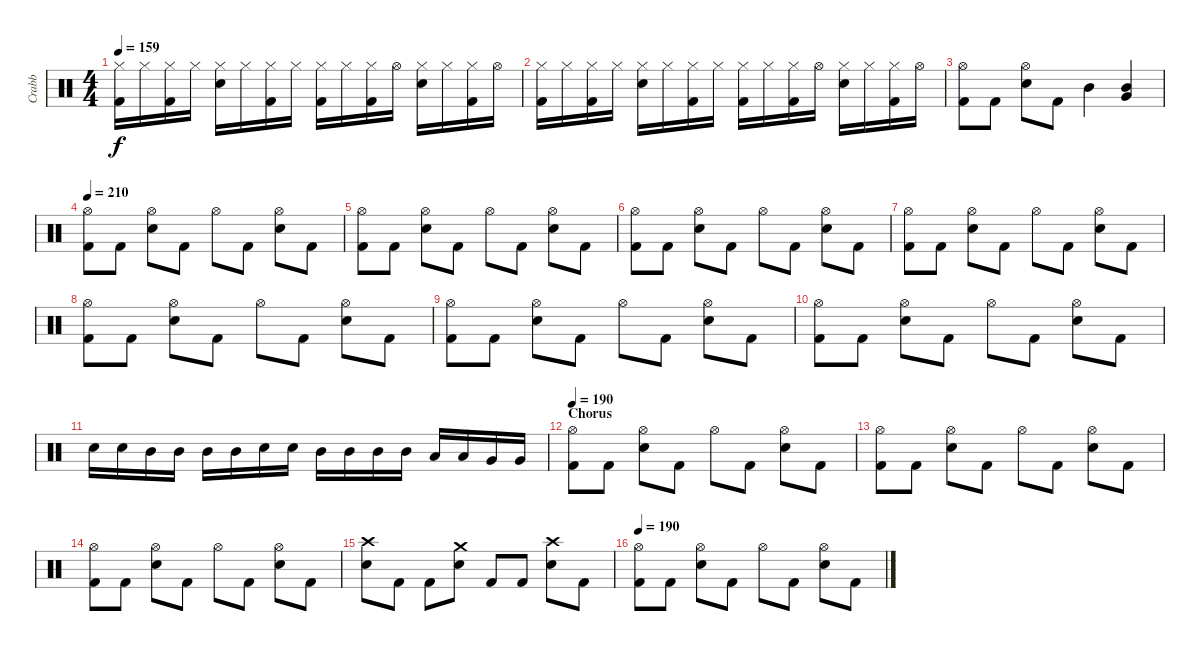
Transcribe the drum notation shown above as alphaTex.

\track ("Crabb" "Crabb") {instrument percussion}
\staff {score}
\articulation defaults
\ts (4 4)
\tempo 159
\clef neutral
\ks c
("Hi-Hat (closed)" "Kick (hit) 2").16{dy f} "Hi-Hat (closed)".16 ("Hi-Hat (closed)" "Kick (hit) 2").16 "Hi-Hat (closed)".16 ("Hi-Hat (closed)" "Electric Snare (hit)").16 "Hi-Hat (closed)".16 ("Hi-Hat (closed)" "Kick (hit) 2").16 "Hi-Hat (closed)".16 ("Hi-Hat (closed)" "Kick (hit) 2").16 "Hi-Hat (closed)".16 ("Hi-Hat (closed)" "Kick (hit) 2").16 "Hi-Hat (open)".16 ("Hi-Hat (closed)" "Electric Snare (hit)").16 "Hi-Hat (closed)".16 ("Hi-Hat (closed)" "Kick (hit) 2").16 "Hi-Hat (open)".16 |
("Hi-Hat (closed)" "Kick (hit) 2").16 "Hi-Hat (closed)".16 ("Hi-Hat (closed)" "Kick (hit) 2").16 "Hi-Hat (closed)".16 ("Hi-Hat (closed)" "Electric Snare (hit)").16 "Hi-Hat (closed)".16 ("Hi-Hat (closed)" "Kick (hit) 2").16 "Hi-Hat (closed)".16 ("Hi-Hat (closed)" "Kick (hit) 2").16 "Hi-Hat (closed)".16 ("Hi-Hat (closed)" "Kick (hit) 2").16 "Hi-Hat (open)".16 ("Hi-Hat (closed)" "Electric Snare (hit)").16 "Hi-Hat (closed)".16 ("Hi-Hat (closed)" "Kick (hit) 2").16 "Hi-Hat (open)".16 |
("Hi-Hat (open)" "Kick (hit) 2").8 "Kick (hit) 2".8 ("Hi-Hat (open)" "Electric Snare (hit)").8 "Kick (hit) 2".8 "Mid Tom (hit)".4 ("Mid Tom (hit)" "Very Low Tom (hit)").4 |
\tempo 210
("Hi-Hat (open)" "Kick (hit) 2").8 "Kick (hit) 2".8 ("Hi-Hat (open)" "Electric Snare (hit)").8 "Kick (hit) 2".8 "Hi-Hat (open)".8 "Kick (hit) 2".8 ("Hi-Hat (open)" "Electric Snare (hit)").8 "Kick (hit) 2".8 |
("Hi-Hat (open)" "Kick (hit) 2").8 "Kick (hit) 2".8 ("Hi-Hat (open)" "Electric Snare (hit)").8 "Kick (hit) 2".8 "Hi-Hat (open)".8 "Kick (hit) 2".8 ("Hi-Hat (open)" "Electric Snare (hit)").8 "Kick (hit) 2".8 |
("Hi-Hat (open)" "Kick (hit) 2").8 "Kick (hit) 2".8 ("Hi-Hat (open)" "Electric Snare (hit)").8 "Kick (hit) 2".8 "Hi-Hat (open)".8 "Kick (hit) 2".8 ("Hi-Hat (open)" "Electric Snare (hit)").8 "Kick (hit) 2".8 |
("Hi-Hat (open)" "Kick (hit) 2").8 "Kick (hit) 2".8 ("Hi-Hat (open)" "Electric Snare (hit)").8 "Kick (hit) 2".8 "Hi-Hat (open)".8 "Kick (hit) 2".8 ("Hi-Hat (open)" "Electric Snare (hit)").8 "Kick (hit) 2".8 |
("Hi-Hat (open)" "Kick (hit) 2").8 "Kick (hit) 2".8 ("Hi-Hat (open)" "Electric Snare (hit)").8 "Kick (hit) 2".8 "Hi-Hat (open)".8 "Kick (hit) 2".8 ("Hi-Hat (open)" "Electric Snare (hit)").8 "Kick (hit) 2".8 |
("Hi-Hat (open)" "Kick (hit) 2").8 "Kick (hit) 2".8 ("Hi-Hat (open)" "Electric Snare (hit)").8 "Kick (hit) 2".8 "Hi-Hat (open)".8 "Kick (hit) 2".8 ("Hi-Hat (open)" "Electric Snare (hit)").8 "Kick (hit) 2".8 |
("Hi-Hat (open)" "Kick (hit) 2").8 "Kick (hit) 2".8 ("Hi-Hat (open)" "Electric Snare (hit)").8 "Kick (hit) 2".8 "Hi-Hat (open)".8 "Kick (hit) 2".8 ("Hi-Hat (open)" "Electric Snare (hit)").8 "Kick (hit) 2".8 |
"Electric Snare (hit)".16 "Electric Snare (hit)".16 "Mid Tom (hit)".16 "Mid Tom (hit)".16 "Mid Tom (hit)".16 "Mid Tom (hit)".16 "Electric Snare (hit)".16 "Electric Snare (hit)".16 "Mid Tom (hit)".16 "Mid Tom (hit)".16 "Mid Tom (hit)".16 "Mid Tom (hit)".16 "Low Tom (hit)".16 "Low Tom (hit)".16 "Very Low Tom (hit)".16 "Very Low Tom (hit)".16 |
\section ("" "Chorus")
\tempo 210
\tempo 190
("Hi-Hat (open)" "Kick (hit) 2").8 "Kick (hit) 2".8 ("Hi-Hat (open)" "Electric Snare (hit)").8 "Kick (hit) 2".8 "Hi-Hat (open)".8 "Kick (hit) 2".8 ("Hi-Hat (open)" "Electric Snare (hit)").8 "Kick (hit) 2".8 |
("Hi-Hat (open)" "Kick (hit) 2").8 "Kick (hit) 2".8 ("Hi-Hat (open)" "Electric Snare (hit)").8 "Kick (hit) 2".8 "Hi-Hat (open)".8 "Kick (hit) 2".8 ("Hi-Hat (open)" "Electric Snare (hit)").8 "Kick (hit) 2".8 |
("Hi-Hat (open)" "Kick (hit) 2").8 "Kick (hit) 2".8 ("Hi-Hat (open)" "Electric Snare (hit)").8 "Kick (hit) 2".8 "Hi-Hat (open)".8 "Kick (hit) 2".8 ("Hi-Hat (open)" "Electric Snare (hit)").8 "Kick (hit) 2".8 |
("Crash high (hit)" "Electric Snare (hit)").8 "Kick (hit) 2".8 "Kick (hit) 2".8 ("Crash medium (hit)" "Electric Snare (hit)").8 "Kick (hit) 2".8 "Kick (hit) 2".8 ("Crash high (hit)" "Electric Snare (hit)").8 "Kick (hit) 2".8 |
\tempo 190
("Hi-Hat (open)" "Kick (hit) 2").8 "Kick (hit) 2".8 ("Hi-Hat (open)" "Electric Snare (hit)").8 "Kick (hit) 2".8 "Hi-Hat (open)".8 "Kick (hit) 2".8 ("Hi-Hat (open)" "Electric Snare (hit)").8 "Kick (hit) 2".8
